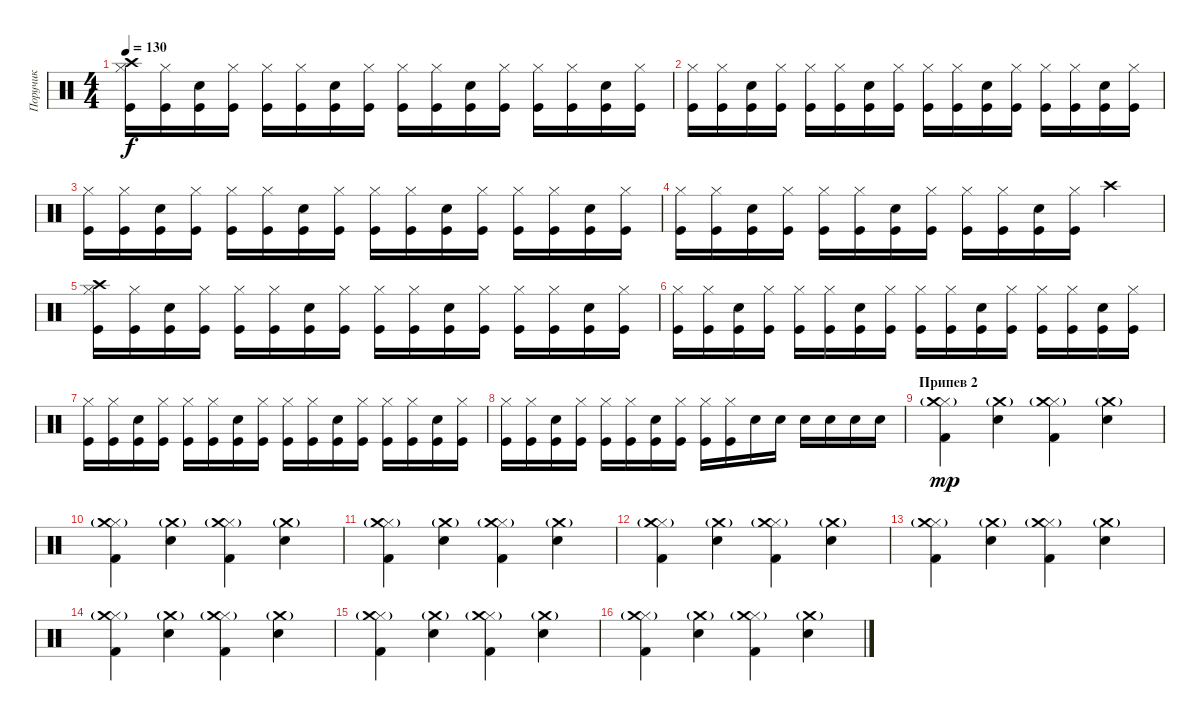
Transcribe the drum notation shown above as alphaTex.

\track ("Поручик" "Поручик") {instrument percussion}
\staff {score}
\articulation defaults
\ts (4 4)
\tempo 130
\clef neutral
\ks c
("Hi-Hat (closed)" "Kick (hit)" "Crash high (hit)").16{dy f} ("Hi-Hat (closed)" "Kick (hit)").16 ("Snare (hit) 2" "Kick (hit)").16 ("Hi-Hat (closed)" "Kick (hit)").16 ("Hi-Hat (closed)" "Kick (hit)").16 ("Hi-Hat (closed)" "Kick (hit)").16 ("Snare (hit) 2" "Kick (hit)").16 ("Hi-Hat (closed)" "Kick (hit)").16 ("Hi-Hat (closed)" "Kick (hit)").16 ("Hi-Hat (closed)" "Kick (hit)").16 ("Snare (hit) 2" "Kick (hit)").16 ("Hi-Hat (closed)" "Kick (hit)").16 ("Hi-Hat (closed)" "Kick (hit)").16 ("Hi-Hat (closed)" "Kick (hit)").16 ("Snare (hit) 2" "Kick (hit)").16 ("Hi-Hat (closed)" "Kick (hit)").16 |
("Hi-Hat (closed)" "Kick (hit)").16 ("Hi-Hat (closed)" "Kick (hit)").16 ("Snare (hit) 2" "Kick (hit)").16 ("Hi-Hat (closed)" "Kick (hit)").16 ("Hi-Hat (closed)" "Kick (hit)").16 ("Hi-Hat (closed)" "Kick (hit)").16 ("Snare (hit) 2" "Kick (hit)").16 ("Hi-Hat (closed)" "Kick (hit)").16 ("Hi-Hat (closed)" "Kick (hit)").16 ("Hi-Hat (closed)" "Kick (hit)").16 ("Snare (hit) 2" "Kick (hit)").16 ("Hi-Hat (closed)" "Kick (hit)").16 ("Hi-Hat (closed)" "Kick (hit)").16 ("Hi-Hat (closed)" "Kick (hit)").16 ("Snare (hit) 2" "Kick (hit)").16 ("Hi-Hat (closed)" "Kick (hit)").16 |
("Hi-Hat (closed)" "Kick (hit)").16 ("Hi-Hat (closed)" "Kick (hit)").16 ("Snare (hit) 2" "Kick (hit)").16 ("Hi-Hat (closed)" "Kick (hit)").16 ("Hi-Hat (closed)" "Kick (hit)").16 ("Hi-Hat (closed)" "Kick (hit)").16 ("Snare (hit) 2" "Kick (hit)").16 ("Hi-Hat (closed)" "Kick (hit)").16 ("Hi-Hat (closed)" "Kick (hit)").16 ("Hi-Hat (closed)" "Kick (hit)").16 ("Snare (hit) 2" "Kick (hit)").16 ("Hi-Hat (closed)" "Kick (hit)").16 ("Hi-Hat (closed)" "Kick (hit)").16 ("Hi-Hat (closed)" "Kick (hit)").16 ("Snare (hit) 2" "Kick (hit)").16 ("Hi-Hat (closed)" "Kick (hit)").16 |
("Hi-Hat (closed)" "Kick (hit)").16 ("Hi-Hat (closed)" "Kick (hit)").16 ("Snare (hit) 2" "Kick (hit)").16 ("Hi-Hat (closed)" "Kick (hit)").16 ("Hi-Hat (closed)" "Kick (hit)").16 ("Hi-Hat (closed)" "Kick (hit)").16 ("Snare (hit) 2" "Kick (hit)").16 ("Hi-Hat (closed)" "Kick (hit)").16 ("Hi-Hat (closed)" "Kick (hit)").16 ("Hi-Hat (closed)" "Kick (hit)").16 ("Snare (hit) 2" "Kick (hit)").16 ("Hi-Hat (closed)" "Kick (hit)").16 "Crash high (hit)".4 |
("Hi-Hat (closed)" "Kick (hit)" "Crash high (hit)").16 ("Hi-Hat (closed)" "Kick (hit)").16 ("Snare (hit) 2" "Kick (hit)").16 ("Hi-Hat (closed)" "Kick (hit)").16 ("Hi-Hat (closed)" "Kick (hit)").16 ("Hi-Hat (closed)" "Kick (hit)").16 ("Snare (hit) 2" "Kick (hit)").16 ("Hi-Hat (closed)" "Kick (hit)").16 ("Hi-Hat (closed)" "Kick (hit)").16 ("Hi-Hat (closed)" "Kick (hit)").16 ("Snare (hit) 2" "Kick (hit)").16 ("Hi-Hat (closed)" "Kick (hit)").16 ("Hi-Hat (closed)" "Kick (hit)").16 ("Hi-Hat (closed)" "Kick (hit)").16 ("Snare (hit) 2" "Kick (hit)").16 ("Hi-Hat (closed)" "Kick (hit)").16 |
("Hi-Hat (closed)" "Kick (hit)").16 ("Hi-Hat (closed)" "Kick (hit)").16 ("Snare (hit) 2" "Kick (hit)").16 ("Hi-Hat (closed)" "Kick (hit)").16 ("Hi-Hat (closed)" "Kick (hit)").16 ("Hi-Hat (closed)" "Kick (hit)").16 ("Snare (hit) 2" "Kick (hit)").16 ("Hi-Hat (closed)" "Kick (hit)").16 ("Hi-Hat (closed)" "Kick (hit)").16 ("Hi-Hat (closed)" "Kick (hit)").16 ("Snare (hit) 2" "Kick (hit)").16 ("Hi-Hat (closed)" "Kick (hit)").16 ("Hi-Hat (closed)" "Kick (hit)").16 ("Hi-Hat (closed)" "Kick (hit)").16 ("Snare (hit) 2" "Kick (hit)").16 ("Hi-Hat (closed)" "Kick (hit)").16 |
("Hi-Hat (closed)" "Kick (hit)").16 ("Hi-Hat (closed)" "Kick (hit)").16 ("Snare (hit) 2" "Kick (hit)").16 ("Hi-Hat (closed)" "Kick (hit)").16 ("Hi-Hat (closed)" "Kick (hit)").16 ("Hi-Hat (closed)" "Kick (hit)").16 ("Snare (hit) 2" "Kick (hit)").16 ("Hi-Hat (closed)" "Kick (hit)").16 ("Hi-Hat (closed)" "Kick (hit)").16 ("Hi-Hat (closed)" "Kick (hit)").16 ("Snare (hit) 2" "Kick (hit)").16 ("Hi-Hat (closed)" "Kick (hit)").16 ("Hi-Hat (closed)" "Kick (hit)").16 ("Hi-Hat (closed)" "Kick (hit)").16 ("Snare (hit) 2" "Kick (hit)").16 ("Hi-Hat (closed)" "Kick (hit)").16 |
("Hi-Hat (closed)" "Kick (hit)").16 ("Hi-Hat (closed)" "Kick (hit)").16 ("Snare (hit) 2" "Kick (hit)").16 ("Hi-Hat (closed)" "Kick (hit)").16 ("Hi-Hat (closed)" "Kick (hit)").16 ("Hi-Hat (closed)" "Kick (hit)").16 ("Snare (hit) 2" "Kick (hit)").16 ("Hi-Hat (closed)" "Kick (hit)").16 ("Hi-Hat (closed)" "Kick (hit)").16 ("Hi-Hat (closed)" "Kick (hit)").16 "Snare (hit) 2".16 "Snare (hit) 2".16 "Snare (hit) 2".16 "Snare (hit) 2".16 "Snare (hit) 2".16 "Snare (hit) 2".16 |
\section ("" "Припев 2")
("Kick (hit) 2" "Hi-Hat (closed)" "Crash medium (hit)"{g}).4{dy mp} ("Snare (hit) 2" "Crash medium (hit)"{g}).4 ("Kick (hit) 2" "Hi-Hat (closed)" "Crash medium (hit)"{g}).4 ("Snare (hit) 2" "Crash medium (hit)"{g}).4 |
("Kick (hit) 2" "Hi-Hat (closed)" "Crash medium (hit)"{g}).4 ("Snare (hit) 2" "Crash medium (hit)"{g}).4 ("Kick (hit) 2" "Hi-Hat (closed)" "Crash medium (hit)"{g}).4 ("Snare (hit) 2" "Crash medium (hit)"{g}).4 |
("Kick (hit) 2" "Hi-Hat (closed)" "Crash medium (hit)"{g}).4 ("Snare (hit) 2" "Crash medium (hit)"{g}).4 ("Kick (hit) 2" "Hi-Hat (closed)" "Crash medium (hit)"{g}).4 ("Snare (hit) 2" "Crash medium (hit)"{g}).4 |
("Kick (hit) 2" "Hi-Hat (closed)" "Crash medium (hit)"{g}).4 ("Snare (hit) 2" "Crash medium (hit)"{g}).4 ("Kick (hit) 2" "Hi-Hat (closed)" "Crash medium (hit)"{g}).4 ("Snare (hit) 2" "Crash medium (hit)"{g}).4 |
("Kick (hit) 2" "Hi-Hat (closed)" "Crash medium (hit)"{g}).4 ("Snare (hit) 2" "Crash medium (hit)"{g}).4 ("Kick (hit) 2" "Hi-Hat (closed)" "Crash medium (hit)"{g}).4 ("Snare (hit) 2" "Crash medium (hit)"{g}).4 |
("Kick (hit) 2" "Hi-Hat (closed)" "Crash medium (hit)"{g}).4 ("Snare (hit) 2" "Crash medium (hit)"{g}).4 ("Kick (hit) 2" "Hi-Hat (closed)" "Crash medium (hit)"{g}).4 ("Snare (hit) 2" "Crash medium (hit)"{g}).4 |
("Kick (hit) 2" "Hi-Hat (closed)" "Crash medium (hit)"{g}).4 ("Snare (hit) 2" "Crash medium (hit)"{g}).4 ("Kick (hit) 2" "Hi-Hat (closed)" "Crash medium (hit)"{g}).4 ("Snare (hit) 2" "Crash medium (hit)"{g}).4 |
("Kick (hit) 2" "Hi-Hat (closed)" "Crash medium (hit)"{g}).4 ("Snare (hit) 2" "Crash medium (hit)"{g}).4 ("Kick (hit) 2" "Hi-Hat (closed)" "Crash medium (hit)"{g}).4 ("Snare (hit) 2" "Crash medium (hit)"{g}).4
